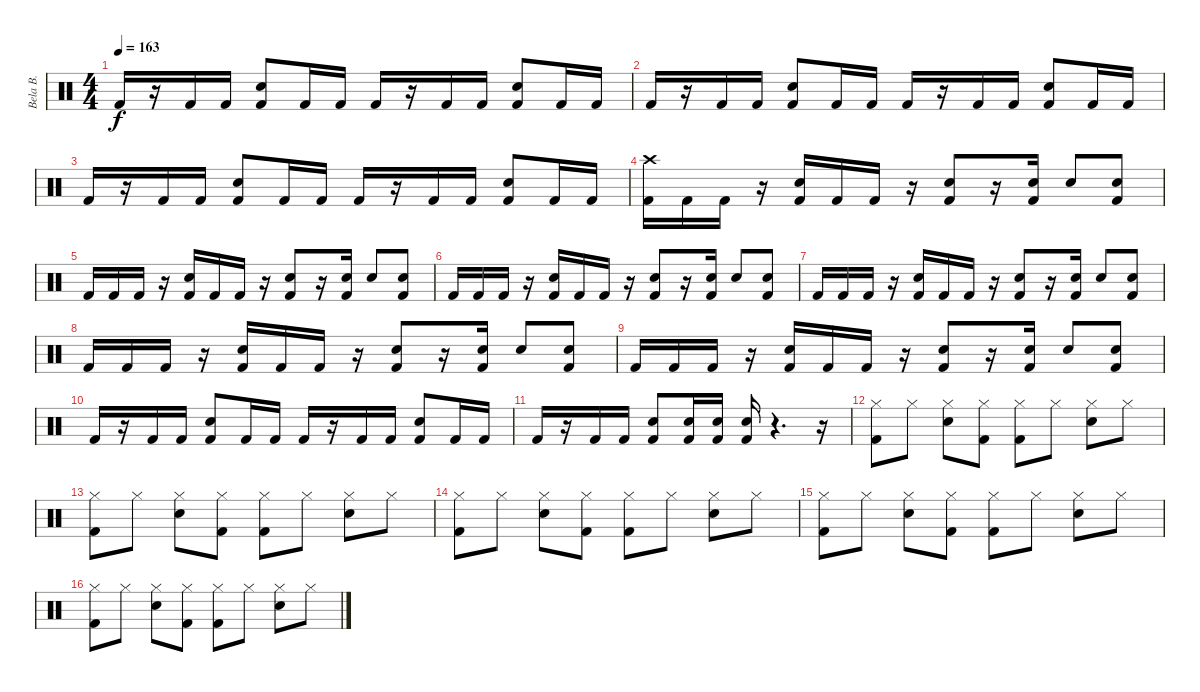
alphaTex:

\track ("Bela B." "Bela B.") {instrument percussion}
\staff {score}
\articulation defaults
\ts (4 4)
\tempo 163
\clef neutral
\ks c "Kick (hit) 2".16{dy f}
r.16 "Kick (hit) 2".16 "Kick (hit) 2".16 ("Kick (hit) 2" "Snare (hit) 2").8 "Kick (hit) 2".16 "Kick (hit) 2".16 "Kick (hit) 2".16 r.16 "Kick (hit) 2".16 "Kick (hit) 2".16 ("Kick (hit) 2" "Snare (hit) 2").8 "Kick (hit) 2".16 "Kick (hit) 2".16 |
"Kick (hit) 2".16 r.16 "Kick (hit) 2".16 "Kick (hit) 2".16 ("Kick (hit) 2" "Snare (hit) 2").8 "Kick (hit) 2".16 "Kick (hit) 2".16 "Kick (hit) 2".16 r.16 "Kick (hit) 2".16 "Kick (hit) 2".16 ("Kick (hit) 2" "Snare (hit) 2").8 "Kick (hit) 2".16 "Kick (hit) 2".16 |
"Kick (hit) 2".16 r.16 "Kick (hit) 2".16 "Kick (hit) 2".16 ("Kick (hit) 2" "Snare (hit) 2").8 "Kick (hit) 2".16 "Kick (hit) 2".16 "Kick (hit) 2".16 r.16 "Kick (hit) 2".16 "Kick (hit) 2".16 ("Kick (hit) 2" "Snare (hit) 2").8 "Kick (hit) 2".16 "Kick (hit) 2".16 |
("Crash high (hit)" "Kick (hit) 2").16 "Kick (hit) 2".16 "Kick (hit) 2".16 r.16 ("Snare (hit) 2" "Kick (hit) 2").16 "Kick (hit) 2".16 "Kick (hit) 2".16 r.16 ("Kick (hit) 2" "Hand Clap (hit)").8 r.16 ("Kick (hit) 2" "Hand Clap (hit)").16 "Snare (hit) 2".8 ("Kick (hit) 2" "Hand Clap (hit)").8 |
"Kick (hit) 2".16 "Kick (hit) 2".16 "Kick (hit) 2".16 r.16 ("Snare (hit) 2" "Kick (hit) 2").16 "Kick (hit) 2".16 "Kick (hit) 2".16 r.16 ("Kick (hit) 2" "Hand Clap (hit)").8 r.16 ("Hand Clap (hit)" "Kick (hit) 2").16 "Snare (hit) 2".8 ("Kick (hit) 2" "Hand Clap (hit)").8 |
"Kick (hit) 2".16 "Kick (hit) 2".16 "Kick (hit) 2".16 r.16 ("Kick (hit) 2" "Snare (hit) 2").16 "Kick (hit) 2".16 "Kick (hit) 2".16 r.16 ("Kick (hit) 2" "Hand Clap (hit)").8 r.16 ("Kick (hit) 2" "Hand Clap (hit)").16 "Snare (hit) 2".8 ("Kick (hit) 2" "Hand Clap (hit)").8 |
"Kick (hit) 2".16 "Kick (hit) 2".16 "Kick (hit) 2".16 r.16 ("Kick (hit) 2" "Snare (hit) 2").16 "Kick (hit) 2".16 "Kick (hit) 2".16 r.16 ("Kick (hit) 2" "Hand Clap (hit)").8 r.16 ("Kick (hit) 2" "Hand Clap (hit)").16 "Snare (hit) 2".8 ("Kick (hit) 2" "Hand Clap (hit)").8 |
"Kick (hit) 2".16 "Kick (hit) 2".16 "Kick (hit) 2".16 r.16 ("Kick (hit) 2" "Snare (hit) 2").16 "Kick (hit) 2".16 "Kick (hit) 2".16 r.16 ("Kick (hit) 2" "Hand Clap (hit)").8 r.16 ("Kick (hit) 2" "Hand Clap (hit)").16 "Snare (hit) 2".8 ("Kick (hit) 2" "Hand Clap (hit)").8 |
"Kick (hit) 2".16 "Kick (hit) 2".16 "Kick (hit) 2".16 r.16 ("Kick (hit) 2" "Snare (hit) 2").16 "Kick (hit) 2".16 "Kick (hit) 2".16 r.16 ("Kick (hit) 2" "Hand Clap (hit)").8 r.16 ("Kick (hit) 2" "Hand Clap (hit)").16 "Snare (hit) 2".8 ("Kick (hit) 2" "Hand Clap (hit)").8 |
"Kick (hit) 2".16 r.16 "Kick (hit) 2".16 "Kick (hit) 2".16 ("Kick (hit) 2" "Snare (hit) 2").8 "Kick (hit) 2".16 "Kick (hit) 2".16 "Kick (hit) 2".16 r.16 "Kick (hit) 2".16 "Kick (hit) 2".16 ("Kick (hit) 2" "Snare (hit) 2").8 "Kick (hit) 2".16 "Kick (hit) 2".16 |
"Kick (hit) 2".16 r.16 "Kick (hit) 2".16 "Kick (hit) 2".16 ("Kick (hit) 2" "Snare (hit) 2").8 ("Snare (hit) 2" "Kick (hit) 2").16 ("Snare (hit) 2" "Kick (hit) 2").16 ("Snare (hit) 2" "Kick (hit) 2").16 r.4{d} r.16 |
("Hi-Hat (closed)" "Kick (hit) 2").8 "Hi-Hat (closed)".8 ("Hi-Hat (closed)" "Snare (hit) 2").8 ("Hi-Hat (closed)" "Kick (hit) 2").8 ("Hi-Hat (closed)" "Kick (hit) 2").8 "Hi-Hat (closed)".8 ("Hi-Hat (closed)" "Snare (hit) 2").8 "Hi-Hat (closed)".8 |
("Kick (hit) 2" "Hi-Hat (closed)").8 "Hi-Hat (closed)".8 ("Snare (hit) 2" "Hi-Hat (closed)").8 ("Hi-Hat (closed)" "Kick (hit) 2").8 ("Kick (hit) 2" "Hi-Hat (closed)").8 "Hi-Hat (closed)".8 ("Hi-Hat (closed)" "Snare (hit) 2").8 "Hi-Hat (closed)".8 |
("Kick (hit) 2" "Hi-Hat (closed)").8 "Hi-Hat (closed)".8 ("Snare (hit) 2" "Hi-Hat (closed)").8 ("Kick (hit) 2" "Hi-Hat (closed)").8 ("Kick (hit) 2" "Hi-Hat (closed)").8 "Hi-Hat (closed)".8 ("Hi-Hat (closed)" "Snare (hit) 2").8 "Hi-Hat (closed)".8 |
("Hi-Hat (closed)" "Kick (hit) 2").8 "Hi-Hat (closed)".8 ("Snare (hit) 2" "Hi-Hat (closed)").8 ("Hi-Hat (closed)" "Kick (hit) 2").8 ("Kick (hit) 2" "Hi-Hat (closed)").8 "Hi-Hat (closed)".8 ("Snare (hit) 2" "Hi-Hat (closed)").8 "Hi-Hat (closed)".8 |
("Kick (hit) 2" "Hi-Hat (closed)").8 "Hi-Hat (closed)".8 ("Hi-Hat (closed)" "Snare (hit) 2").8 ("Kick (hit) 2" "Hi-Hat (closed)").8 ("Hi-Hat (closed)" "Kick (hit) 2").8 "Hi-Hat (closed)".8 ("Snare (hit) 2" "Hi-Hat (closed)").8 "Hi-Hat (closed)".8
